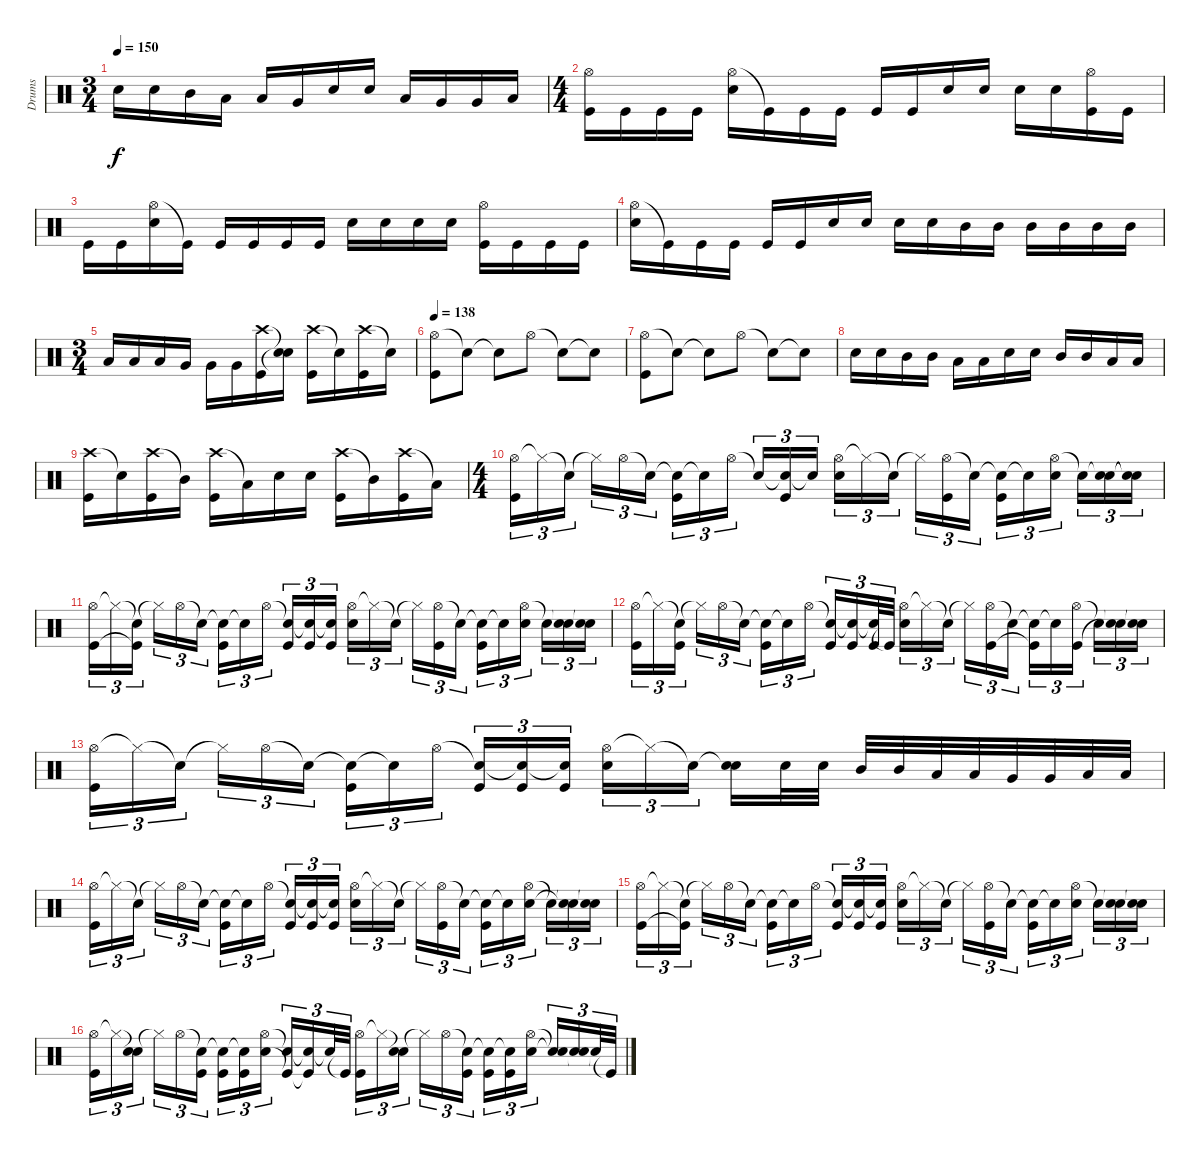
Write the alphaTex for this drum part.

\track ("Drums" "Drums") {instrument percussion}
\staff {score}
\articulation defaults
\ts (3 4)
\tempo 150
\clef neutral
\ks c "Electric Snare (hit)".16{dy f} "Electric Snare (hit)".16 "Mid Tom (hit)".16 "Low Tom (hit)".16 "Low Tom (hit)".16 "Very Low Tom (hit)".16 "Electric Snare (hit)".16 "Electric Snare (hit)".16 "Low Tom (hit)".16 "Very Low Tom (hit)".16 "Very Low Tom (hit)".16 "Low Floor Tom (hit)".16
|
\ts (4 4)
("Hi-Hat (open)" "Kick (hit)").16 "Kick (hit)".16 "Kick (hit)".16 "Kick (hit)".16 ("Hi-Hat (open)" "Electric Snare (hit)").16 "Kick (hit)"{t}.16 "Kick (hit)".16 "Kick (hit)".16 "Kick (hit)".16 "Kick (hit)".16 "Electric Snare (hit)".16 "Electric Snare (hit)".16 "Electric Snare (hit)".16 "Electric Snare (hit)".16 ("Hi-Hat (open)" "Kick (hit)").16 "Kick (hit)".16 |
"Kick (hit)".16 "Kick (hit)".16 ("Hi-Hat (open)" "Electric Snare (hit)").16 "Kick (hit)"{t}.16 "Kick (hit)".16 "Kick (hit)".16 "Kick (hit)".16 "Kick (hit)".16 "Electric Snare (hit)".16 "Electric Snare (hit)".16 "Electric Snare (hit)".16 "Electric Snare (hit)".16 ("Hi-Hat (open)" "Kick (hit)").16 "Kick (hit)".16 "Kick (hit)".16 "Kick (hit)".16 |
("Hi-Hat (open)" "Electric Snare (hit)").16 "Kick (hit)"{t}.16 "Kick (hit)".16 "Kick (hit)".16 "Kick (hit)".16 "Kick (hit)".16 "Electric Snare (hit)".16 "Electric Snare (hit)".16 "Electric Snare (hit)".16 "Electric Snare (hit)".16 "Mid Tom (hit)".16 "Mid Tom (hit)".16 "Mid Tom (hit)".16 "Mid Tom (hit)".16 "Mid Tom (hit)".16 "Mid Tom (hit)".16 |
\ts (3 4)
"Low Tom (hit)".16 "Low Tom (hit)".16 "Low Tom (hit)".16 "Very Low Tom (hit)".16 "Very Low Tom (hit)".16 "Very Low Tom (hit)".16 ("Crash high (hit)" "Kick (hit)").16 ("Snare (hit)"{t} "Snare (hit)"{t}).16 ("Crash high (hit)" "Kick (hit)").16 "Snare (hit)"{t}.16 ("Crash high (hit)" "Kick (hit)").16 "Snare (hit)"{t}.16 |
\tempo 138
("Hi-Hat (open)" "Kick (hit)").8 "Snare (hit)"{t}.8 "Snare (hit)"{t}.8 "Hi-Hat (open)".8 "Snare (hit)"{t}.8 "Snare (hit)"{t}.8 |
("Hi-Hat (open)" "Kick (hit)").8 "Snare (hit)"{t}.8 "Snare (hit)"{t}.8 "Hi-Hat (open)".8 "Snare (hit)"{t}.8 "Snare (hit)"{t}.8 |
"Electric Snare (hit)".16 "Electric Snare (hit)".16 "Mid Tom (hit)".16 "Mid Tom (hit)".16 "Low Tom (hit)".16 "Low Tom (hit)".16 "Electric Snare (hit)".16 "Electric Snare (hit)".16 "Mid Tom (hit)".16 "Mid Tom (hit)".16 "Low Tom (hit)".16 "Low Tom (hit)".16 |
("Crash high (hit)" "Kick (hit)").16 "Electric Snare (hit)"{t}.16 ("Crash high (hit)" "Kick (hit)").16 "Mid Tom (hit)"{t}.16 ("Crash high (hit)" "Kick (hit)").16 "Low Tom (hit)"{t}.16 "Electric Snare (hit)".16 "Electric Snare (hit)".16 ("Crash high (hit)" "Kick (hit)").16 "Mid Tom (hit)"{t}.16 ("Crash high (hit)" "Kick (hit)").16 "Low Tom (hit)"{t}.16 |
\ts (4 4)
("Hi-Hat (open)" "Kick (hit)").16{tu (3 2)} "Hi-Hat (closed)"{t}.16{tu (3 2)} "Snare (hit)"{t}.16{tu (3 2)} "Hi-Hat (closed)"{t}.16{tu (3 2)} "Hi-Hat (open)".16{tu (3 2)} "Snare (hit)"{t}.16{tu (3 2)} ("Snare (hit)"{t} "Kick (hit)").16{tu (3 2)} "Snare (hit)"{t}.16{tu (3 2)} "Hi-Hat (open)".16{tu (3 2)} "Snare (hit)"{t}.16{tu (3 2)} ("Snare (hit)"{t} "Kick (hit)").16{tu (3 2)} "Snare (hit)"{t}.16{tu (3 2)} ("Hi-Hat (open)" "Electric Snare (hit)").16{tu (3 2)} "Hi-Hat (closed)"{t}.16{tu (3 2)} "Snare (hit)"{t}.16{tu (3 2)} "Hi-Hat (closed)"{t}.16{tu (3 2)} ("Hi-Hat (open)" "Kick (hit)").16{tu (3 2)} "Snare (hit)"{t}.16{tu (3 2)} ("Snare (hit)"{t} "Kick (hit)").16{tu (3 2)} "Snare (hit)"{t}.16{tu (3 2)} ("Hi-Hat (open)" "Electric Snare (hit)").16{tu (3 2)} "Snare (hit)"{t}.16{tu (3 2)} ("Snare (hit)"{t} "Electric Snare (hit)").16{tu (3 2)} ("Snare (hit)"{t} "Electric Snare (hit)"{t}).16{tu (3 2)} |
("Hi-Hat (open)" "Kick (hit)").16{tu (3 2)} "Hi-Hat (closed)"{t}.16{tu (3 2)} ("Snare (hit)"{t} "Kick (hit)"{t}).16{tu (3 2)} "Hi-Hat (closed)"{t}.16{tu (3 2)} "Hi-Hat (open)".16{tu (3 2)} "Snare (hit)"{t}.16{tu (3 2)} ("Snare (hit)"{t} "Kick (hit)").16{tu (3 2)} "Snare (hit)"{t}.16{tu (3 2)} "Hi-Hat (open)".16{tu (3 2)} ("Snare (hit)"{t} "Kick (hit)").16{tu (3 2)} ("Snare (hit)"{t} "Kick (hit)").16{tu (3 2)} ("Snare (hit)"{t} "Kick (hit)").16{tu (3 2)} ("Hi-Hat (open)" "Electric Snare (hit)").16{tu (3 2)} "Hi-Hat (closed)"{t}.16{tu (3 2)} "Snare (hit)"{t}.16{tu (3 2)} "Hi-Hat (closed)"{t}.16{tu (3 2)} ("Hi-Hat (open)" "Kick (hit)").16{tu (3 2)} "Snare (hit)"{t}.16{tu (3 2)} ("Snare (hit)"{t} "Kick (hit)").16{tu (3 2)} "Snare (hit)"{t}.16{tu (3 2)} ("Hi-Hat (open)" "Electric Snare (hit)").16{tu (3 2)} "Snare (hit)"{t}.16{tu (3 2)} ("Snare (hit)"{t} "Electric Snare (hit)").16{tu (3 2)} ("Snare (hit)"{t} "Electric Snare (hit)"{t}).16{tu (3 2)} |
("Hi-Hat (open)" "Kick (hit)").16{tu (3 2)} "Hi-Hat (closed)"{t}.16{tu (3 2)} ("Snare (hit)"{t} "Kick (hit)").16{tu (3 2)} "Hi-Hat (closed)"{t}.16{tu (3 2)} "Hi-Hat (open)".16{tu (3 2)} "Snare (hit)"{t}.16{tu (3 2)} ("Snare (hit)"{t} "Kick (hit)").16{tu (3 2)} "Snare (hit)"{t}.16{tu (3 2)} "Hi-Hat (open)".16{tu (3 2)} ("Snare (hit)"{t} "Kick (hit)").16{tu (3 2)} ("Snare (hit)"{t} "Kick (hit)").16{tu (3 2)} ("Snare (hit)"{t} "Kick (hit)").32{tu (3 2)} "Kick (hit)"{t}.32{tu (3 2)} ("Hi-Hat (open)" "Electric Snare (hit)").16{tu (3 2)} "Hi-Hat (closed)"{t}.16{tu (3 2)} "Snare (hit)"{t}.16{tu (3 2)} "Hi-Hat (closed)"{t}.16{tu (3 2)} ("Hi-Hat (open)" "Kick (hit)").16{tu (3 2)} "Snare (hit)"{t}.16{tu (3 2)} ("Snare (hit)"{t} "Kick (hit)"{t}).16{tu (3 2)} "Snare (hit)"{t}.16{tu (3 2)} ("Hi-Hat (open)" "Kick (hit)").16{tu (3 2)} "Snare (hit)"{t}.16{tu (3 2)} ("Snare (hit)"{t} "Electric Snare (hit)"{t}).16{tu (3 2)} ("Snare (hit)"{t} "Electric Snare (hit)"{t}).16{tu (3 2)} |
("Hi-Hat (open)" "Kick (hit)").16{tu (3 2)} "Hi-Hat (closed)"{t}.16{tu (3 2)} "Snare (hit)"{t}.16{tu (3 2)} "Hi-Hat (closed)"{t}.16{tu (3 2)} "Hi-Hat (open)".16{tu (3 2)} "Snare (hit)"{t}.16{tu (3 2)} ("Snare (hit)"{t} "Kick (hit)").16{tu (3 2)} "Snare (hit)"{t}.16{tu (3 2)} "Hi-Hat (open)".16{tu (3 2)} ("Snare (hit)"{t} "Kick (hit)").16{tu (3 2)} ("Snare (hit)"{t} "Kick (hit)").16{tu (3 2)} ("Snare (hit)"{t} "Kick (hit)").16{tu (3 2)} ("Hi-Hat (open)" "Electric Snare (hit)").16{tu (3 2)} "Hi-Hat (closed)"{t}.16{tu (3 2)} "Snare (hit)"{t}.16{tu (3 2)} ("Snare (hit)"{t} "Electric Snare (hit)").16 "Electric Snare (hit)".32 "Electric Snare (hit)".32 "Mid Tom (hit)".32 "Mid Tom (hit)".32 "Low Tom (hit)".32 "Low Tom (hit)".32 "Very Low Tom (hit)".32 "Very Low Tom (hit)".32 "Low Floor Tom (hit)".32 "Low Floor Tom (hit)".32 |
("Hi-Hat (open)" "Kick (hit)").16{tu (3 2)} "Hi-Hat (closed)"{t}.16{tu (3 2)} "Snare (hit)"{t}.16{tu (3 2)} "Hi-Hat (closed)"{t}.16{tu (3 2)} "Hi-Hat (open)".16{tu (3 2)} "Snare (hit)"{t}.16{tu (3 2)} ("Snare (hit)"{t} "Kick (hit)").16{tu (3 2)} "Snare (hit)"{t}.16{tu (3 2)} "Hi-Hat (open)".16{tu (3 2)} ("Snare (hit)"{t} "Kick (hit)").16{tu (3 2)} ("Snare (hit)"{t} "Kick (hit)").16{tu (3 2)} ("Snare (hit)"{t} "Kick (hit)").16{tu (3 2)} ("Hi-Hat (open)" "Electric Snare (hit)").16{tu (3 2)} "Hi-Hat (closed)"{t}.16{tu (3 2)} "Snare (hit)"{t}.16{tu (3 2)} "Hi-Hat (closed)"{t}.16{tu (3 2)} ("Hi-Hat (open)" "Kick (hit)").16{tu (3 2)} "Snare (hit)"{t}.16{tu (3 2)} ("Snare (hit)"{t} "Kick (hit)").16{tu (3 2)} "Snare (hit)"{t}.16{tu (3 2)} ("Hi-Hat (open)" "Electric Snare (hit)").16{tu (3 2)} "Snare (hit)"{t}.16{tu (3 2)} ("Snare (hit)"{t} "Electric Snare (hit)"{t}).16{tu (3 2)} ("Snare (hit)"{t} "Electric Snare (hit)"{t}).16{tu (3 2)} |
("Hi-Hat (open)" "Kick (hit)").16{tu (3 2)} "Hi-Hat (closed)"{t}.16{tu (3 2)} ("Snare (hit)"{t} "Kick (hit)"{t}).16{tu (3 2)} "Hi-Hat (closed)"{t}.16{tu (3 2)} "Hi-Hat (open)".16{tu (3 2)} "Snare (hit)"{t}.16{tu (3 2)} ("Snare (hit)"{t} "Kick (hit)").16{tu (3 2)} "Snare (hit)"{t}.16{tu (3 2)} "Hi-Hat (open)".16{tu (3 2)} ("Snare (hit)"{t} "Kick (hit)").16{tu (3 2)} ("Snare (hit)"{t} "Kick (hit)").16{tu (3 2)} ("Snare (hit)"{t} "Kick (hit)").16{tu (3 2)} ("Hi-Hat (open)" "Electric Snare (hit)").16{tu (3 2)} "Hi-Hat (closed)"{t}.16{tu (3 2)} "Snare (hit)"{t}.16{tu (3 2)} "Hi-Hat (closed)"{t}.16{tu (3 2)} ("Hi-Hat (open)" "Kick (hit)").16{tu (3 2)} "Snare (hit)"{t}.16{tu (3 2)} ("Snare (hit)"{t} "Kick (hit)").16{tu (3 2)} "Snare (hit)"{t}.16{tu (3 2)} ("Hi-Hat (open)" "Electric Snare (hit)").16{tu (3 2)} "Snare (hit)"{t}.16{tu (3 2)} ("Snare (hit)"{t} "Electric Snare (hit)").16{tu (3 2)} ("Snare (hit)"{t} "Electric Snare (hit)"{t}).16{tu (3 2)} |
("Hi-Hat (open)" "Kick (hit)").16{tu (3 2)} "Hi-Hat (closed)"{t}.16{tu (3 2)} ("Snare (hit)"{t} "Electric Snare (hit)").16{tu (3 2)} "Hi-Hat (closed)"{t}.16{tu (3 2)} "Hi-Hat (open)".16{tu (3 2)} ("Snare (hit)"{t} "Kick (hit)").16{tu (3 2)} ("Snare (hit)"{t} "Kick (hit)").16{tu (3 2)} ("Snare (hit)"{t} "Kick (hit)").16{tu (3 2)} ("Hi-Hat (open)" "Electric Snare (hit)").16{tu (3 2)} ("Snare (hit)"{t} "Kick (hit)"{t}).16{tu (3 2)} ("Snare (hit)"{t} "Kick (hit)"{t}).16{tu (3 2)} "Snare (hit)"{t}.32{tu (3 2)} "Kick (hit)"{t}.32{tu (3 2)} ("Hi-Hat (open)" "Kick (hit)").16{tu (3 2)} "Hi-Hat (closed)"{t}.16{tu (3 2)} ("Snare (hit)"{t} "Electric Snare (hit)").16{tu (3 2)} "Hi-Hat (closed)"{t}.16{tu (3 2)} "Hi-Hat (open)".16{tu (3 2)} ("Snare (hit)"{t} "Kick (hit)").16{tu (3 2)} ("Snare (hit)"{t} "Kick (hit)").16{tu (3 2)} ("Snare (hit)"{t} "Kick (hit)").16{tu (3 2)} ("Hi-Hat (open)" "Electric Snare (hit)").16{tu (3 2)} ("Snare (hit)"{t} "Electric Snare (hit)"{t}).16{tu (3 2)} ("Snare (hit)"{t} "Electric Snare (hit)").16{tu (3 2)} "Snare (hit)"{t}.32{tu (3 2)} "Kick (hit)"{t}.32{tu (3 2)}
